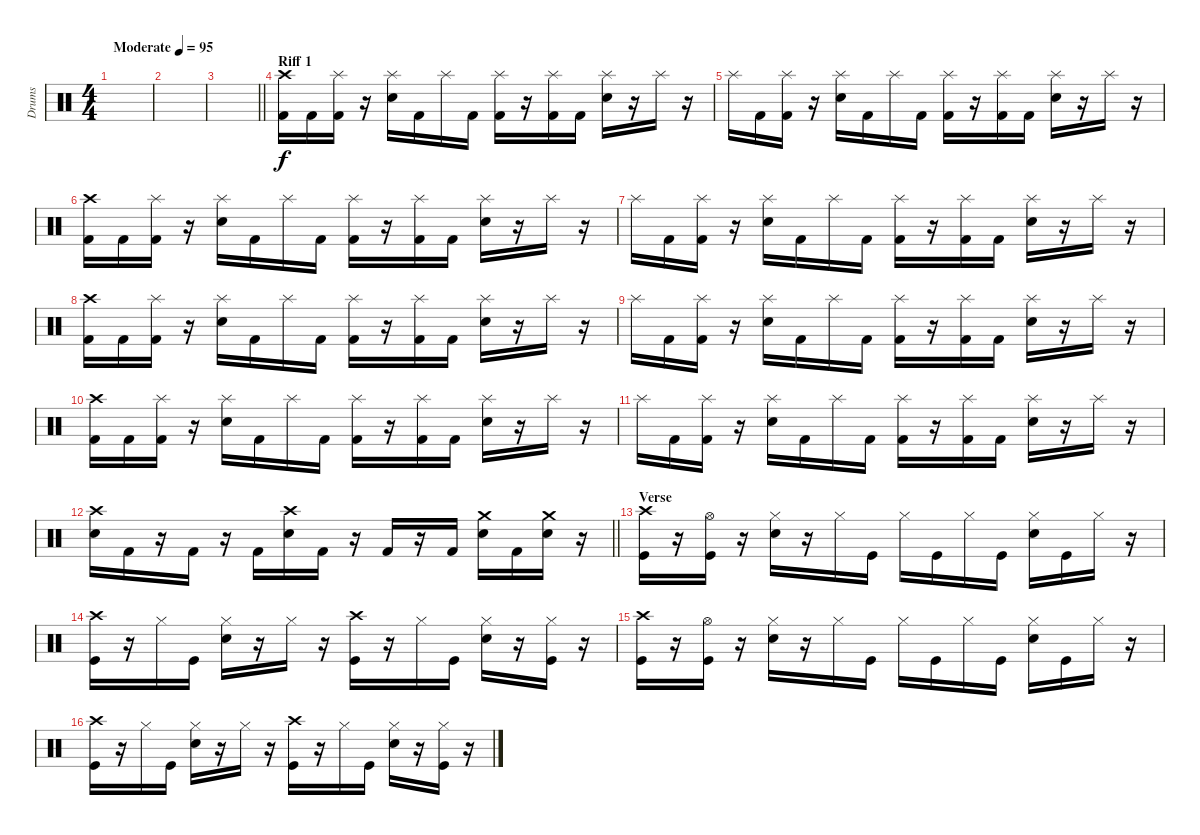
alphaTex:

\track ("Drums" "Drums") {instrument percussion}
\staff {score}
\articulation defaults
\ts (4 4)
\tempo (95 "Moderate")
\clef neutral
\ks c
|
|
\barLineRight lightlight
|
\section ("" "Riff 1")
("Crash high (hit)" "Kick (hit) 2").16 "Kick (hit) 2".16 ("Splash (hit)" "Kick (hit) 2").16 r.16 ("Splash (hit)" "Electric Snare (hit)").16 "Kick (hit) 2".16 "Splash (hit)".16 "Kick (hit) 2".16 ("Splash (hit)" "Kick (hit) 2").16 r.16 ("Splash (hit)" "Kick (hit) 2").16 "Kick (hit) 2".16 ("Splash (hit)" "Electric Snare (hit)").16 r.16 "Splash (hit)".16 r.16 |
"Splash (hit)".16 "Kick (hit) 2".16 ("Splash (hit)" "Kick (hit) 2").16 r.16 ("Splash (hit)" "Electric Snare (hit)").16 "Kick (hit) 2".16 "Splash (hit)".16 "Kick (hit) 2".16 ("Splash (hit)" "Kick (hit) 2").16 r.16 ("Splash (hit)" "Kick (hit) 2").16 "Kick (hit) 2".16 ("Splash (hit)" "Electric Snare (hit)").16 r.16 "Splash (hit)".16 r.16 |
("Crash high (hit)" "Kick (hit) 2").16 "Kick (hit) 2".16 ("Splash (hit)" "Kick (hit) 2").16 r.16 ("Splash (hit)" "Electric Snare (hit)").16 "Kick (hit) 2".16 "Splash (hit)".16 "Kick (hit) 2".16 ("Splash (hit)" "Kick (hit) 2").16 r.16 ("Splash (hit)" "Kick (hit) 2").16 "Kick (hit) 2".16 ("Splash (hit)" "Electric Snare (hit)").16 r.16 "Splash (hit)".16 r.16 |
"Splash (hit)".16 "Kick (hit) 2".16 ("Splash (hit)" "Kick (hit) 2").16 r.16 ("Splash (hit)" "Electric Snare (hit)").16 "Kick (hit) 2".16 "Splash (hit)".16 "Kick (hit) 2".16 ("Splash (hit)" "Kick (hit) 2").16 r.16 ("Splash (hit)" "Kick (hit) 2").16 "Kick (hit) 2".16 ("Splash (hit)" "Electric Snare (hit)").16 r.16 "Splash (hit)".16 r.16 |
("Crash high (hit)" "Kick (hit) 2").16 "Kick (hit) 2".16 ("Splash (hit)" "Kick (hit) 2").16 r.16 ("Splash (hit)" "Electric Snare (hit)").16 "Kick (hit) 2".16 "Splash (hit)".16 "Kick (hit) 2".16 ("Splash (hit)" "Kick (hit) 2").16 r.16 ("Splash (hit)" "Kick (hit) 2").16 "Kick (hit) 2".16 ("Splash (hit)" "Electric Snare (hit)").16 r.16 "Splash (hit)".16 r.16 |
"Splash (hit)".16 "Kick (hit) 2".16 ("Splash (hit)" "Kick (hit) 2").16 r.16 ("Splash (hit)" "Electric Snare (hit)").16 "Kick (hit) 2".16 "Splash (hit)".16 "Kick (hit) 2".16 ("Splash (hit)" "Kick (hit) 2").16 r.16 ("Splash (hit)" "Kick (hit) 2").16 "Kick (hit) 2".16 ("Splash (hit)" "Electric Snare (hit)").16 r.16 "Splash (hit)".16 r.16 |
("Crash high (hit)" "Kick (hit) 2").16 "Kick (hit) 2".16 ("Splash (hit)" "Kick (hit) 2").16 r.16 ("Splash (hit)" "Electric Snare (hit)").16 "Kick (hit) 2".16 "Splash (hit)".16 "Kick (hit) 2".16 ("Splash (hit)" "Kick (hit) 2").16 r.16 ("Splash (hit)" "Kick (hit) 2").16 "Kick (hit) 2".16 ("Splash (hit)" "Electric Snare (hit)").16 r.16 "Splash (hit)".16 r.16 |
"Splash (hit)".16 "Kick (hit) 2".16 ("Splash (hit)" "Kick (hit) 2").16 r.16 ("Splash (hit)" "Electric Snare (hit)").16 "Kick (hit) 2".16 "Splash (hit)".16 "Kick (hit) 2".16 ("Splash (hit)" "Kick (hit) 2").16 r.16 ("Splash (hit)" "Kick (hit) 2").16 "Kick (hit) 2".16 ("Splash (hit)" "Electric Snare (hit)").16 r.16 "Splash (hit)".16 r.16 |
\barLineRight lightlight
("Crash high (hit)" "Electric Snare (hit)").16 "Kick (hit) 2".16 r.16 "Kick (hit) 2".16 r.16 "Kick (hit) 2".16 ("Crash high (hit)" "Electric Snare (hit)").16 "Kick (hit) 2".16 r.16 "Kick (hit) 2".16 r.16 "Kick (hit) 2".16 ("Crash medium (hit)" "Electric Snare (hit)").16 "Kick (hit) 2".16 ("Crash medium (hit)" "Electric Snare (hit)").16 r.16 |
\section ("" "Verse")
("Crash high (hit)" "Kick (hit)").16 r.16 ("Hi-Hat (open)" "Kick (hit)").16 r.16 ("Hi-Hat (closed)" "Electric Snare (hit)").16 r.16 "Hi-Hat (closed)".16 "Kick (hit)".16 "Hi-Hat (closed)".16 "Kick (hit)".16 "Hi-Hat (closed)".16 "Kick (hit)".16 ("Hi-Hat (closed)" "Electric Snare (hit)").16 "Kick (hit)".16 "Hi-Hat (closed)".16 r.16 |
("Crash high (hit)" "Kick (hit)").16 r.16 "Hi-Hat (closed)".16 "Kick (hit)".16 ("Hi-Hat (closed)" "Electric Snare (hit)").16 r.16 "Hi-Hat (closed)".16 r.16 ("Crash high (hit)" "Kick (hit)").16 r.16 "Hi-Hat (closed)".16 "Kick (hit)".16 ("Hi-Hat (closed)" "Electric Snare (hit)").16 r.16 ("Hi-Hat (closed)" "Kick (hit)").16 r.16 |
("Crash high (hit)" "Kick (hit)").16 r.16 ("Hi-Hat (open)" "Kick (hit)").16 r.16 ("Hi-Hat (closed)" "Electric Snare (hit)").16 r.16 "Hi-Hat (closed)".16 "Kick (hit)".16 "Hi-Hat (closed)".16 "Kick (hit)".16 "Hi-Hat (closed)".16 "Kick (hit)".16 ("Hi-Hat (closed)" "Electric Snare (hit)").16 "Kick (hit)".16 "Hi-Hat (closed)".16 r.16 |
("Crash high (hit)" "Kick (hit)").16 r.16 "Hi-Hat (closed)".16 "Kick (hit)".16 ("Hi-Hat (closed)" "Electric Snare (hit)").16 r.16 "Hi-Hat (closed)".16 r.16 ("Crash high (hit)" "Kick (hit)").16 r.16 "Hi-Hat (closed)".16 "Kick (hit)".16 ("Hi-Hat (closed)" "Electric Snare (hit)").16 r.16 ("Hi-Hat (closed)" "Kick (hit)").16 r.16
